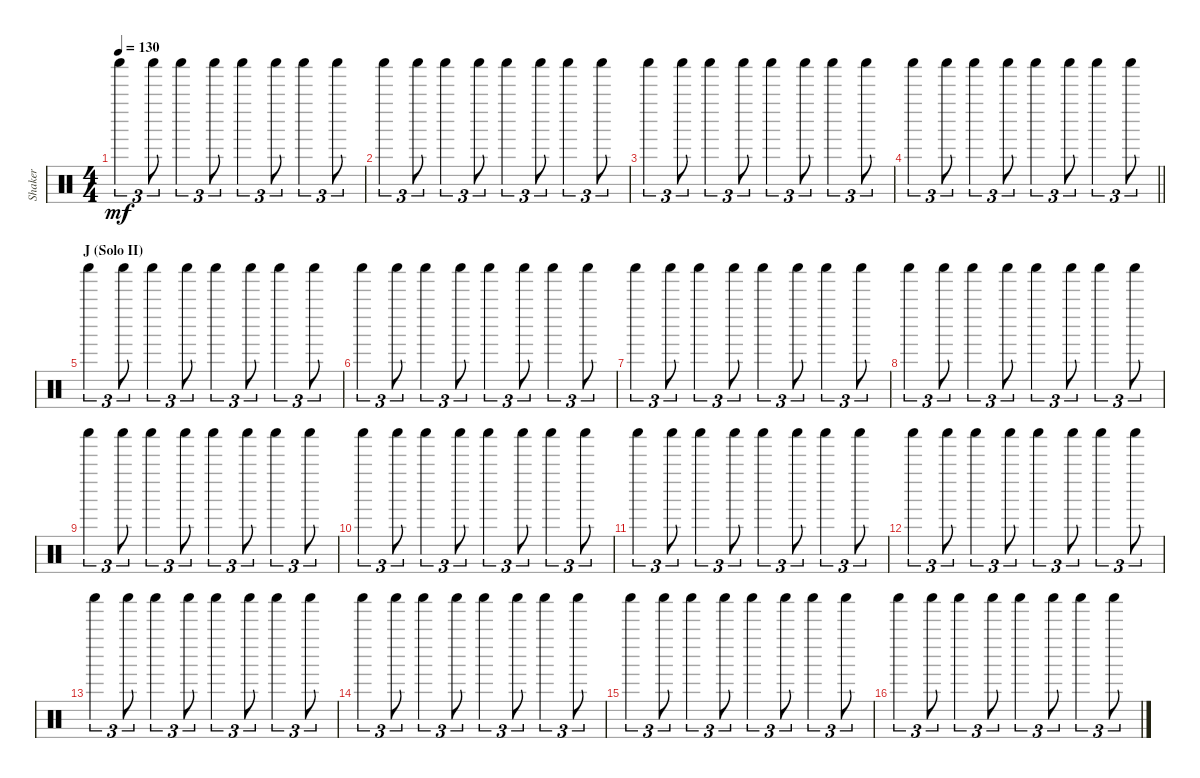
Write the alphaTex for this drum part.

\track ("Shaker" "Shaker") {instrument percussion}
\staff {score}
\articulation defaults
\ts (4 4)
\tempo 130
\clef neutral
\ks c "Shaker (hit)".4{tu (3 2) dy mf} "Shaker (hit)".8{tu (3 2)} "Shaker (hit)".4{tu (3 2)} "Shaker (hit)".8{tu (3 2)} "Shaker (hit)".4{tu (3 2)} "Shaker (hit)".8{tu (3 2)} "Shaker (hit)".4{tu (3 2)} "Shaker (hit)".8{tu (3 2)}
|
"Shaker (hit)".4{tu (3 2)} "Shaker (hit)".8{tu (3 2)} "Shaker (hit)".4{tu (3 2)} "Shaker (hit)".8{tu (3 2)} "Shaker (hit)".4{tu (3 2)} "Shaker (hit)".8{tu (3 2)} "Shaker (hit)".4{tu (3 2)} "Shaker (hit)".8{tu (3 2)} |
"Shaker (hit)".4{tu (3 2)} "Shaker (hit)".8{tu (3 2)} "Shaker (hit)".4{tu (3 2)} "Shaker (hit)".8{tu (3 2)} "Shaker (hit)".4{tu (3 2)} "Shaker (hit)".8{tu (3 2)} "Shaker (hit)".4{tu (3 2)} "Shaker (hit)".8{tu (3 2)} |
\barLineRight lightlight "Shaker (hit)".4{tu (3 2)} "Shaker (hit)".8{tu (3 2)} "Shaker (hit)".4{tu (3 2)} "Shaker (hit)".8{tu (3 2)} "Shaker (hit)".4{tu (3 2)} "Shaker (hit)".8{tu (3 2)} "Shaker (hit)".4{tu (3 2)} "Shaker (hit)".8{tu (3 2)}
|
\section ("" "J (Solo II)")
"Shaker (hit)".4{tu (3 2)} "Shaker (hit)".8{tu (3 2)} "Shaker (hit)".4{tu (3 2)} "Shaker (hit)".8{tu (3 2)} "Shaker (hit)".4{tu (3 2)} "Shaker (hit)".8{tu (3 2)} "Shaker (hit)".4{tu (3 2)} "Shaker (hit)".8{tu (3 2)} |
"Shaker (hit)".4{tu (3 2)} "Shaker (hit)".8{tu (3 2)} "Shaker (hit)".4{tu (3 2)} "Shaker (hit)".8{tu (3 2)} "Shaker (hit)".4{tu (3 2)} "Shaker (hit)".8{tu (3 2)} "Shaker (hit)".4{tu (3 2)} "Shaker (hit)".8{tu (3 2)} |
"Shaker (hit)".4{tu (3 2)} "Shaker (hit)".8{tu (3 2)} "Shaker (hit)".4{tu (3 2)} "Shaker (hit)".8{tu (3 2)} "Shaker (hit)".4{tu (3 2)} "Shaker (hit)".8{tu (3 2)} "Shaker (hit)".4{tu (3 2)} "Shaker (hit)".8{tu (3 2)} |
"Shaker (hit)".4{tu (3 2)} "Shaker (hit)".8{tu (3 2)} "Shaker (hit)".4{tu (3 2)} "Shaker (hit)".8{tu (3 2)} "Shaker (hit)".4{tu (3 2)} "Shaker (hit)".8{tu (3 2)} "Shaker (hit)".4{tu (3 2)} "Shaker (hit)".8{tu (3 2)} |
"Shaker (hit)".4{tu (3 2)} "Shaker (hit)".8{tu (3 2)} "Shaker (hit)".4{tu (3 2)} "Shaker (hit)".8{tu (3 2)} "Shaker (hit)".4{tu (3 2)} "Shaker (hit)".8{tu (3 2)} "Shaker (hit)".4{tu (3 2)} "Shaker (hit)".8{tu (3 2)} |
"Shaker (hit)".4{tu (3 2)} "Shaker (hit)".8{tu (3 2)} "Shaker (hit)".4{tu (3 2)} "Shaker (hit)".8{tu (3 2)} "Shaker (hit)".4{tu (3 2)} "Shaker (hit)".8{tu (3 2)} "Shaker (hit)".4{tu (3 2)} "Shaker (hit)".8{tu (3 2)} |
"Shaker (hit)".4{tu (3 2)} "Shaker (hit)".8{tu (3 2)} "Shaker (hit)".4{tu (3 2)} "Shaker (hit)".8{tu (3 2)} "Shaker (hit)".4{tu (3 2)} "Shaker (hit)".8{tu (3 2)} "Shaker (hit)".4{tu (3 2)} "Shaker (hit)".8{tu (3 2)} |
"Shaker (hit)".4{tu (3 2)} "Shaker (hit)".8{tu (3 2)} "Shaker (hit)".4{tu (3 2)} "Shaker (hit)".8{tu (3 2)} "Shaker (hit)".4{tu (3 2)} "Shaker (hit)".8{tu (3 2)} "Shaker (hit)".4{tu (3 2)} "Shaker (hit)".8{tu (3 2)} |
"Shaker (hit)".4{tu (3 2)} "Shaker (hit)".8{tu (3 2)} "Shaker (hit)".4{tu (3 2)} "Shaker (hit)".8{tu (3 2)} "Shaker (hit)".4{tu (3 2)} "Shaker (hit)".8{tu (3 2)} "Shaker (hit)".4{tu (3 2)} "Shaker (hit)".8{tu (3 2)} |
"Shaker (hit)".4{tu (3 2)} "Shaker (hit)".8{tu (3 2)} "Shaker (hit)".4{tu (3 2)} "Shaker (hit)".8{tu (3 2)} "Shaker (hit)".4{tu (3 2)} "Shaker (hit)".8{tu (3 2)} "Shaker (hit)".4{tu (3 2)} "Shaker (hit)".8{tu (3 2)} |
"Shaker (hit)".4{tu (3 2)} "Shaker (hit)".8{tu (3 2)} "Shaker (hit)".4{tu (3 2)} "Shaker (hit)".8{tu (3 2)} "Shaker (hit)".4{tu (3 2)} "Shaker (hit)".8{tu (3 2)} "Shaker (hit)".4{tu (3 2)} "Shaker (hit)".8{tu (3 2)} |
"Shaker (hit)".4{tu (3 2)} "Shaker (hit)".8{tu (3 2)} "Shaker (hit)".4{tu (3 2)} "Shaker (hit)".8{tu (3 2)} "Shaker (hit)".4{tu (3 2)} "Shaker (hit)".8{tu (3 2)} "Shaker (hit)".4{tu (3 2)} "Shaker (hit)".8{tu (3 2)}
